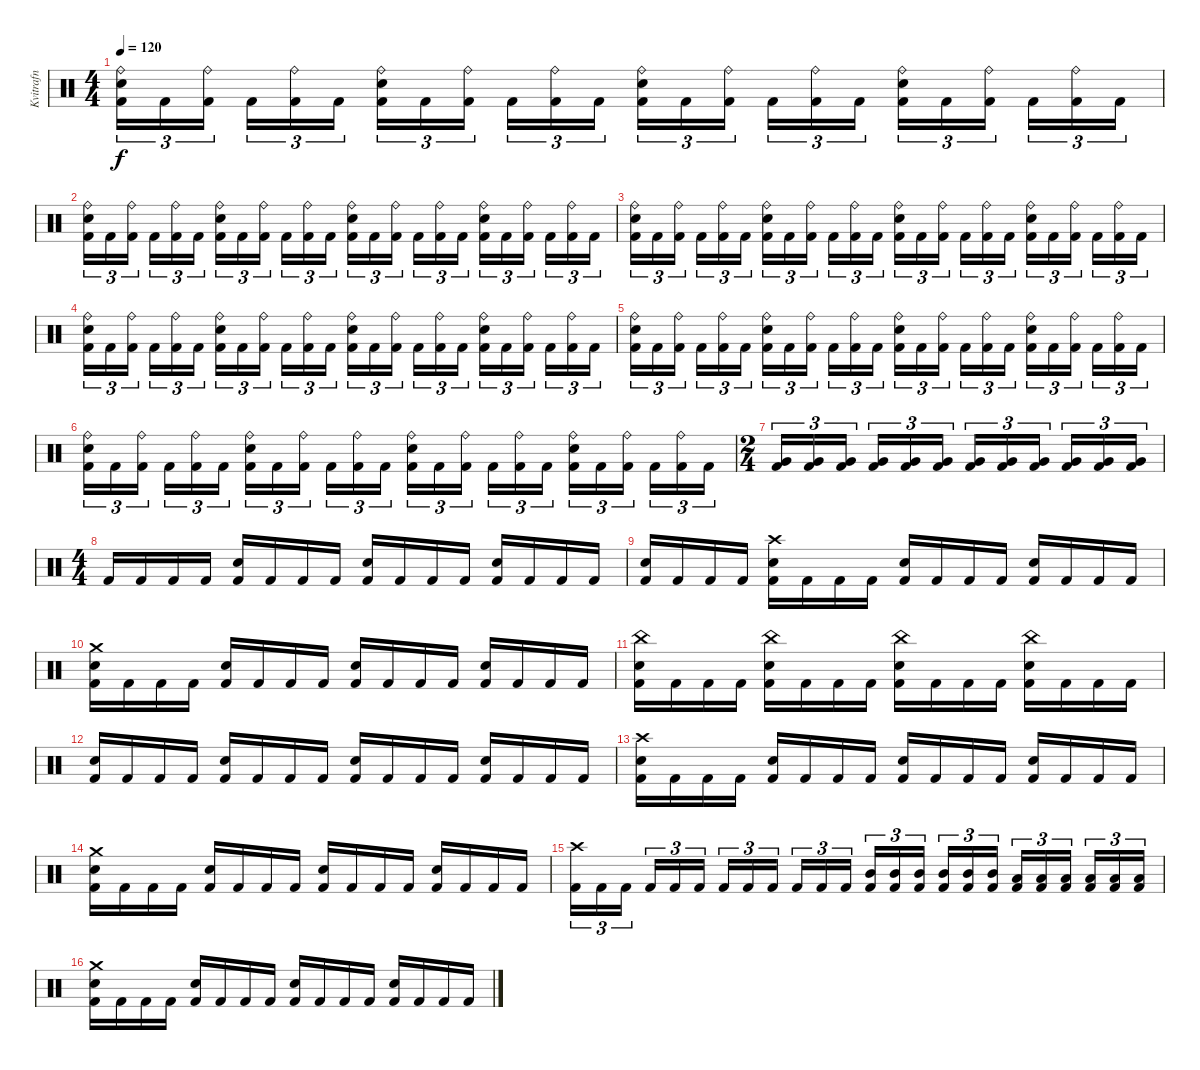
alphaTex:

\track ("Kvitrafn" "Kvitrafn") {instrument percussion}
\staff {score}
\articulation defaults
\ts (4 4)
\tempo 120
\clef neutral
\ks c
("Ride (bell)" "Electric Snare (hit)" "Kick (hit) 2").16{tu (3 2) dy f} "Kick (hit) 2".16{tu (3 2)} ("Ride (bell)" "Kick (hit) 2").16{tu (3 2) beam splitsecondary} "Kick (hit) 2".16{tu (3 2)} ("Ride (bell)" "Kick (hit) 2").16{tu (3 2)} "Kick (hit) 2".16{tu (3 2)} ("Ride (bell)" "Electric Snare (hit)" "Kick (hit) 2").16{tu (3 2)} "Kick (hit) 2".16{tu (3 2)} ("Ride (bell)" "Kick (hit) 2").16{tu (3 2) beam splitsecondary} "Kick (hit) 2".16{tu (3 2)} ("Ride (bell)" "Kick (hit) 2").16{tu (3 2)} "Kick (hit) 2".16{tu (3 2)} ("Ride (bell)" "Electric Snare (hit)" "Kick (hit) 2").16{tu (3 2)} "Kick (hit) 2".16{tu (3 2)} ("Ride (bell)" "Kick (hit) 2").16{tu (3 2) beam splitsecondary} "Kick (hit) 2".16{tu (3 2)} ("Ride (bell)" "Kick (hit) 2").16{tu (3 2)} "Kick (hit) 2".16{tu (3 2)} ("Ride (bell)" "Electric Snare (hit)" "Kick (hit) 2").16{tu (3 2)} "Kick (hit) 2".16{tu (3 2)} ("Ride (bell)" "Kick (hit) 2").16{tu (3 2) beam splitsecondary} "Kick (hit) 2".16{tu (3 2)} ("Ride (bell)" "Kick (hit) 2").16{tu (3 2)} "Kick (hit) 2".16{tu (3 2)} |
("Ride (bell)" "Electric Snare (hit)" "Kick (hit) 2").16{tu (3 2)} "Kick (hit) 2".16{tu (3 2)} ("Ride (bell)" "Kick (hit) 2").16{tu (3 2) beam splitsecondary} "Kick (hit) 2".16{tu (3 2)} ("Ride (bell)" "Kick (hit) 2").16{tu (3 2)} "Kick (hit) 2".16{tu (3 2)} ("Ride (bell)" "Electric Snare (hit)" "Kick (hit) 2").16{tu (3 2)} "Kick (hit) 2".16{tu (3 2)} ("Ride (bell)" "Kick (hit) 2").16{tu (3 2) beam splitsecondary} "Kick (hit) 2".16{tu (3 2)} ("Ride (bell)" "Kick (hit) 2").16{tu (3 2)} "Kick (hit) 2".16{tu (3 2)} ("Ride (bell)" "Electric Snare (hit)" "Kick (hit) 2").16{tu (3 2)} "Kick (hit) 2".16{tu (3 2)} ("Ride (bell)" "Kick (hit) 2").16{tu (3 2) beam splitsecondary} "Kick (hit) 2".16{tu (3 2)} ("Ride (bell)" "Kick (hit) 2").16{tu (3 2)} "Kick (hit) 2".16{tu (3 2)} ("Ride (bell)" "Electric Snare (hit)" "Kick (hit) 2").16{tu (3 2)} "Kick (hit) 2".16{tu (3 2)} ("Ride (bell)" "Kick (hit) 2").16{tu (3 2) beam splitsecondary} "Kick (hit) 2".16{tu (3 2)} ("Ride (bell)" "Kick (hit) 2").16{tu (3 2)} "Kick (hit) 2".16{tu (3 2)} |
("Ride (bell)" "Electric Snare (hit)" "Kick (hit) 2").16{tu (3 2)} "Kick (hit) 2".16{tu (3 2)} ("Ride (bell)" "Kick (hit) 2").16{tu (3 2) beam splitsecondary} "Kick (hit) 2".16{tu (3 2)} ("Ride (bell)" "Kick (hit) 2").16{tu (3 2)} "Kick (hit) 2".16{tu (3 2)} ("Ride (bell)" "Electric Snare (hit)" "Kick (hit) 2").16{tu (3 2)} "Kick (hit) 2".16{tu (3 2)} ("Ride (bell)" "Kick (hit) 2").16{tu (3 2) beam splitsecondary} "Kick (hit) 2".16{tu (3 2)} ("Ride (bell)" "Kick (hit) 2").16{tu (3 2)} "Kick (hit) 2".16{tu (3 2)} ("Ride (bell)" "Electric Snare (hit)" "Kick (hit) 2").16{tu (3 2)} "Kick (hit) 2".16{tu (3 2)} ("Ride (bell)" "Kick (hit) 2").16{tu (3 2) beam splitsecondary} "Kick (hit) 2".16{tu (3 2)} ("Ride (bell)" "Kick (hit) 2").16{tu (3 2)} "Kick (hit) 2".16{tu (3 2)} ("Ride (bell)" "Electric Snare (hit)" "Kick (hit) 2").16{tu (3 2)} "Kick (hit) 2".16{tu (3 2)} ("Ride (bell)" "Kick (hit) 2").16{tu (3 2) beam splitsecondary} "Kick (hit) 2".16{tu (3 2)} ("Ride (bell)" "Kick (hit) 2").16{tu (3 2)} "Kick (hit) 2".16{tu (3 2)} |
("Ride (bell)" "Electric Snare (hit)" "Kick (hit) 2").16{tu (3 2)} "Kick (hit) 2".16{tu (3 2)} ("Ride (bell)" "Kick (hit) 2").16{tu (3 2) beam splitsecondary} "Kick (hit) 2".16{tu (3 2)} ("Ride (bell)" "Kick (hit) 2").16{tu (3 2)} "Kick (hit) 2".16{tu (3 2)} ("Ride (bell)" "Electric Snare (hit)" "Kick (hit) 2").16{tu (3 2)} "Kick (hit) 2".16{tu (3 2)} ("Ride (bell)" "Kick (hit) 2").16{tu (3 2) beam splitsecondary} "Kick (hit) 2".16{tu (3 2)} ("Ride (bell)" "Kick (hit) 2").16{tu (3 2)} "Kick (hit) 2".16{tu (3 2)} ("Ride (bell)" "Electric Snare (hit)" "Kick (hit) 2").16{tu (3 2)} "Kick (hit) 2".16{tu (3 2)} ("Ride (bell)" "Kick (hit) 2").16{tu (3 2) beam splitsecondary} "Kick (hit) 2".16{tu (3 2)} ("Ride (bell)" "Kick (hit) 2").16{tu (3 2)} "Kick (hit) 2".16{tu (3 2)} ("Ride (bell)" "Electric Snare (hit)" "Kick (hit) 2").16{tu (3 2)} "Kick (hit) 2".16{tu (3 2)} ("Ride (bell)" "Kick (hit) 2").16{tu (3 2) beam splitsecondary} "Kick (hit) 2".16{tu (3 2)} ("Ride (bell)" "Kick (hit) 2").16{tu (3 2)} "Kick (hit) 2".16{tu (3 2)} |
("Ride (bell)" "Electric Snare (hit)" "Kick (hit) 2").16{tu (3 2)} "Kick (hit) 2".16{tu (3 2)} ("Ride (bell)" "Kick (hit) 2").16{tu (3 2) beam splitsecondary} "Kick (hit) 2".16{tu (3 2)} ("Ride (bell)" "Kick (hit) 2").16{tu (3 2)} "Kick (hit) 2".16{tu (3 2)} ("Ride (bell)" "Electric Snare (hit)" "Kick (hit) 2").16{tu (3 2)} "Kick (hit) 2".16{tu (3 2)} ("Ride (bell)" "Kick (hit) 2").16{tu (3 2) beam splitsecondary} "Kick (hit) 2".16{tu (3 2)} ("Ride (bell)" "Kick (hit) 2").16{tu (3 2)} "Kick (hit) 2".16{tu (3 2)} ("Ride (bell)" "Electric Snare (hit)" "Kick (hit) 2").16{tu (3 2)} "Kick (hit) 2".16{tu (3 2)} ("Ride (bell)" "Kick (hit) 2").16{tu (3 2) beam splitsecondary} "Kick (hit) 2".16{tu (3 2)} ("Ride (bell)" "Kick (hit) 2").16{tu (3 2)} "Kick (hit) 2".16{tu (3 2)} ("Ride (bell)" "Electric Snare (hit)" "Kick (hit) 2").16{tu (3 2)} "Kick (hit) 2".16{tu (3 2)} ("Ride (bell)" "Kick (hit) 2").16{tu (3 2) beam splitsecondary} "Kick (hit) 2".16{tu (3 2)} ("Ride (bell)" "Kick (hit) 2").16{tu (3 2)} "Kick (hit) 2".16{tu (3 2)} |
("Ride (bell)" "Electric Snare (hit)" "Kick (hit) 2").16{tu (3 2)} "Kick (hit) 2".16{tu (3 2)} ("Ride (bell)" "Kick (hit) 2").16{tu (3 2) beam splitsecondary} "Kick (hit) 2".16{tu (3 2)} ("Ride (bell)" "Kick (hit) 2").16{tu (3 2)} "Kick (hit) 2".16{tu (3 2)} ("Ride (bell)" "Electric Snare (hit)" "Kick (hit) 2").16{tu (3 2)} "Kick (hit) 2".16{tu (3 2)} ("Ride (bell)" "Kick (hit) 2").16{tu (3 2) beam splitsecondary} "Kick (hit) 2".16{tu (3 2)} ("Ride (bell)" "Kick (hit) 2").16{tu (3 2)} "Kick (hit) 2".16{tu (3 2)} ("Ride (bell)" "Electric Snare (hit)" "Kick (hit) 2").16{tu (3 2)} "Kick (hit) 2".16{tu (3 2)} ("Ride (bell)" "Kick (hit) 2").16{tu (3 2) beam splitsecondary} "Kick (hit) 2".16{tu (3 2)} ("Ride (bell)" "Kick (hit) 2").16{tu (3 2)} "Kick (hit) 2".16{tu (3 2)} ("Ride (bell)" "Electric Snare (hit)" "Kick (hit) 2").16{tu (3 2)} "Kick (hit) 2".16{tu (3 2)} ("Ride (bell)" "Kick (hit) 2").16{tu (3 2) beam splitsecondary} "Kick (hit) 2".16{tu (3 2)} ("Ride (bell)" "Kick (hit) 2").16{tu (3 2)} "Kick (hit) 2".16{tu (3 2)} |
\ts (2 4)
("Very Low Tom (hit)" "Kick (hit) 2").16{tu (3 2)} ("Very Low Tom (hit)" "Kick (hit) 2").16{tu (3 2)} ("Very Low Tom (hit)" "Kick (hit) 2").16{tu (3 2) beam splitsecondary} ("Very Low Tom (hit)" "Kick (hit) 2").16{tu (3 2)} ("Very Low Tom (hit)" "Kick (hit) 2").16{tu (3 2)} ("Very Low Tom (hit)" "Kick (hit) 2").16{tu (3 2)} ("Very Low Tom (hit)" "Kick (hit) 2").16{tu (3 2)} ("Very Low Tom (hit)" "Kick (hit) 2").16{tu (3 2)} ("Very Low Tom (hit)" "Kick (hit) 2").16{tu (3 2) beam splitsecondary} ("Very Low Tom (hit)" "Kick (hit) 2").16{tu (3 2)} ("Very Low Tom (hit)" "Kick (hit) 2").16{tu (3 2)} ("Very Low Tom (hit)" "Kick (hit) 2").16{tu (3 2)} |
\ts (4 4)
"Kick (hit) 2".16 "Kick (hit) 2".16 "Kick (hit) 2".16 "Kick (hit) 2".16 ("Electric Snare (hit)" "Kick (hit) 2").16 "Kick (hit) 2".16 "Kick (hit) 2".16 "Kick (hit) 2".16 ("Electric Snare (hit)" "Kick (hit) 2").16 "Kick (hit) 2".16 "Kick (hit) 2".16 "Kick (hit) 2".16 ("Electric Snare (hit)" "Kick (hit) 2").16 "Kick (hit) 2".16 "Kick (hit) 2".16 "Kick (hit) 2".16 |
("Electric Snare (hit)" "Kick (hit) 2").16 "Kick (hit) 2".16 "Kick (hit) 2".16 "Kick (hit) 2".16 ("Crash high (hit)" "Electric Snare (hit)" "Kick (hit) 2").16 "Kick (hit) 2".16 "Kick (hit) 2".16 "Kick (hit) 2".16 ("Electric Snare (hit)" "Kick (hit) 2").16 "Kick (hit) 2".16 "Kick (hit) 2".16 "Kick (hit) 2".16 ("Electric Snare (hit)" "Kick (hit) 2").16 "Kick (hit) 2".16 "Kick (hit) 2".16 "Kick (hit) 2".16 |
("Crash medium (hit)" "Electric Snare (hit)" "Kick (hit) 2").16 "Kick (hit) 2".16 "Kick (hit) 2".16 "Kick (hit) 2".16 ("Electric Snare (hit)" "Kick (hit) 2").16 "Kick (hit) 2".16 "Kick (hit) 2".16 "Kick (hit) 2".16 ("Electric Snare (hit)" "Kick (hit) 2").16 "Kick (hit) 2".16 "Kick (hit) 2".16 "Kick (hit) 2".16 ("Electric Snare (hit)" "Kick (hit) 2").16 "Kick (hit) 2".16 "Kick (hit) 2".16 "Kick (hit) 2".16 |
("China (hit)" "Electric Snare (hit)" "Kick (hit) 2").16 "Kick (hit) 2".16 "Kick (hit) 2".16 "Kick (hit) 2".16 ("China (hit)" "Electric Snare (hit)" "Kick (hit) 2").16 "Kick (hit) 2".16 "Kick (hit) 2".16 "Kick (hit) 2".16 ("China (hit)" "Electric Snare (hit)" "Kick (hit) 2").16 "Kick (hit) 2".16 "Kick (hit) 2".16 "Kick (hit) 2".16 ("China (hit)" "Electric Snare (hit)" "Kick (hit) 2").16 "Kick (hit) 2".16 "Kick (hit) 2".16 "Kick (hit) 2".16 |
("Electric Snare (hit)" "Kick (hit) 2").16 "Kick (hit) 2".16 "Kick (hit) 2".16 "Kick (hit) 2".16 ("Electric Snare (hit)" "Kick (hit) 2").16 "Kick (hit) 2".16 "Kick (hit) 2".16 "Kick (hit) 2".16 ("Electric Snare (hit)" "Kick (hit) 2").16 "Kick (hit) 2".16 "Kick (hit) 2".16 "Kick (hit) 2".16 ("Electric Snare (hit)" "Kick (hit) 2").16 "Kick (hit) 2".16 "Kick (hit) 2".16 "Kick (hit) 2".16 |
("Crash high (hit)" "Electric Snare (hit)" "Kick (hit) 2").16 "Kick (hit) 2".16 "Kick (hit) 2".16 "Kick (hit) 2".16 ("Electric Snare (hit)" "Kick (hit) 2").16 "Kick (hit) 2".16 "Kick (hit) 2".16 "Kick (hit) 2".16 ("Electric Snare (hit)" "Kick (hit) 2").16 "Kick (hit) 2".16 "Kick (hit) 2".16 "Kick (hit) 2".16 ("Electric Snare (hit)" "Kick (hit) 2").16 "Kick (hit) 2".16 "Kick (hit) 2".16 "Kick (hit) 2".16 |
("Crash medium (hit)" "Electric Snare (hit)" "Kick (hit) 2").16 "Kick (hit) 2".16 "Kick (hit) 2".16 "Kick (hit) 2".16 ("Electric Snare (hit)" "Kick (hit) 2").16 "Kick (hit) 2".16 "Kick (hit) 2".16 "Kick (hit) 2".16 ("Electric Snare (hit)" "Kick (hit) 2").16 "Kick (hit) 2".16 "Kick (hit) 2".16 "Kick (hit) 2".16 ("Electric Snare (hit)" "Kick (hit) 2").16 "Kick (hit) 2".16 "Kick (hit) 2".16 "Kick (hit) 2".16 |
("Crash high (hit)" "Kick (hit) 2").16{tu (3 2)} "Kick (hit) 2".16{tu (3 2)} "Kick (hit) 2".16{tu (3 2) beam splitsecondary} "Kick (hit) 2".16{tu (3 2)} "Kick (hit) 2".16{tu (3 2)} "Kick (hit) 2".16{tu (3 2)} "Kick (hit) 2".16{tu (3 2)} "Kick (hit) 2".16{tu (3 2)} "Kick (hit) 2".16{tu (3 2) beam splitsecondary} "Kick (hit) 2".16{tu (3 2)} "Kick (hit) 2".16{tu (3 2)} "Kick (hit) 2".16{tu (3 2)} ("Mid Tom (hit)" "Kick (hit) 2").16{tu (3 2)} ("Mid Tom (hit)" "Kick (hit) 2").16{tu (3 2)} ("Mid Tom (hit)" "Kick (hit) 2").16{tu (3 2) beam splitsecondary} ("Mid Tom (hit)" "Kick (hit) 2").16{tu (3 2)} ("Mid Tom (hit)" "Kick (hit) 2").16{tu (3 2)} ("Mid Tom (hit)" "Kick (hit) 2").16{tu (3 2)} ("Low Tom (hit)" "Kick (hit) 2").16{tu (3 2)} ("Low Tom (hit)" "Kick (hit) 2").16{tu (3 2)} ("Low Tom (hit)" "Kick (hit) 2").16{tu (3 2) beam splitsecondary} ("Low Tom (hit)" "Kick (hit) 2").16{tu (3 2)} ("Low Tom (hit)" "Kick (hit) 2").16{tu (3 2)} ("Low Tom (hit)" "Kick (hit) 2").16{tu (3 2)} |
("Crash medium (hit)" "Electric Snare (hit)" "Kick (hit) 2").16 "Kick (hit) 2".16 "Kick (hit) 2".16 "Kick (hit) 2".16 ("Electric Snare (hit)" "Kick (hit) 2").16 "Kick (hit) 2".16 "Kick (hit) 2".16 "Kick (hit) 2".16 ("Electric Snare (hit)" "Kick (hit) 2").16 "Kick (hit) 2".16 "Kick (hit) 2".16 "Kick (hit) 2".16 ("Electric Snare (hit)" "Kick (hit) 2").16 "Kick (hit) 2".16 "Kick (hit) 2".16 "Kick (hit) 2".16
